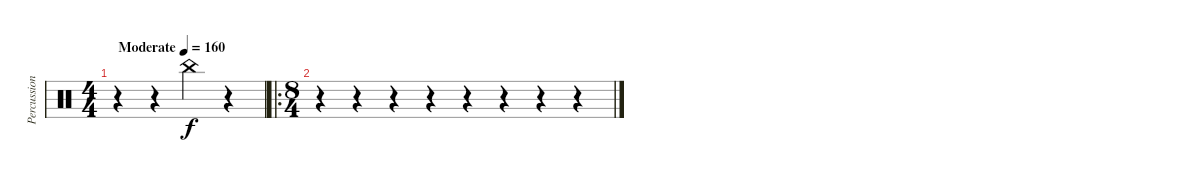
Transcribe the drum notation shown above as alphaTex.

\track ("Percussion" "Percussion") {instrument percussion}
\staff
\articulation defaults
\ts (4 4)
\tempo (160 "Moderate")
\clef neutral
\ks c
r.4{dy f} r.4 "China (hit)".4{volume 16} r.4 |
\ro
\ts (8 4)
r.4 r.4 r.4 r.4 r.4 r.4 r.4 r.4
